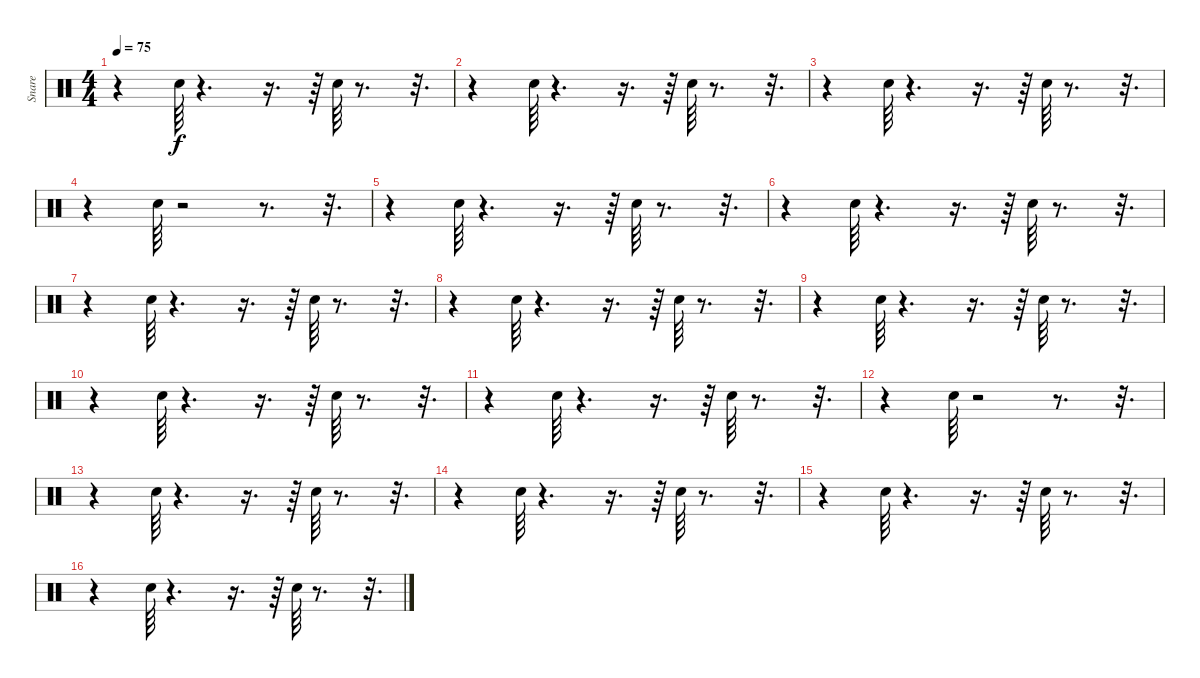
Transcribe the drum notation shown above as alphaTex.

\track ("Snare" "Snare") {instrument percussion}
\staff {score}
\articulation defaults
\ts (4 4)
\tempo 75
\clef neutral
\ks c
r.4{dy f} "Electric Snare (hit)".64 r.4{d} r.16{d} r.64 "Electric Snare (hit)".64 r.8{d} r.32{d} |
r.4 "Electric Snare (hit)".64 r.4{d} r.16{d} r.64 "Electric Snare (hit)".64 r.8{d} r.32{d} |
r.4 "Electric Snare (hit)".64 r.4{d} r.16{d} r.64 "Electric Snare (hit)".64 r.8{d} r.32{d} |
r.4 "Electric Snare (hit)".64 r.2 r.8{d} r.32{d} |
r.4 "Electric Snare (hit)".64 r.4{d} r.16{d} r.64 "Electric Snare (hit)".64 r.8{d} r.32{d} |
r.4 "Electric Snare (hit)".64 r.4{d} r.16{d} r.64 "Electric Snare (hit)".64 r.8{d} r.32{d} |
r.4 "Electric Snare (hit)".64 r.4{d} r.16{d} r.64 "Electric Snare (hit)".64 r.8{d} r.32{d} |
r.4 "Electric Snare (hit)".64 r.4{d} r.16{d} r.64 "Electric Snare (hit)".64 r.8{d} r.32{d} |
r.4 "Electric Snare (hit)".64 r.4{d} r.16{d} r.64 "Electric Snare (hit)".64 r.8{d} r.32{d} |
r.4 "Electric Snare (hit)".64 r.4{d} r.16{d} r.64 "Electric Snare (hit)".64 r.8{d} r.32{d} |
r.4 "Electric Snare (hit)".64 r.4{d} r.16{d} r.64 "Electric Snare (hit)".64 r.8{d} r.32{d} |
r.4 "Electric Snare (hit)".64 r.2 r.8{d} r.32{d} |
r.4 "Electric Snare (hit)".64 r.4{d} r.16{d} r.64 "Electric Snare (hit)".64 r.8{d} r.32{d} |
r.4 "Electric Snare (hit)".64 r.4{d} r.16{d} r.64 "Electric Snare (hit)".64 r.8{d} r.32{d} |
r.4 "Electric Snare (hit)".64 r.4{d} r.16{d} r.64 "Electric Snare (hit)".64 r.8{d} r.32{d} |
r.4 "Electric Snare (hit)".64 r.4{d} r.16{d} r.64 "Electric Snare (hit)".64 r.8{d} r.32{d}
